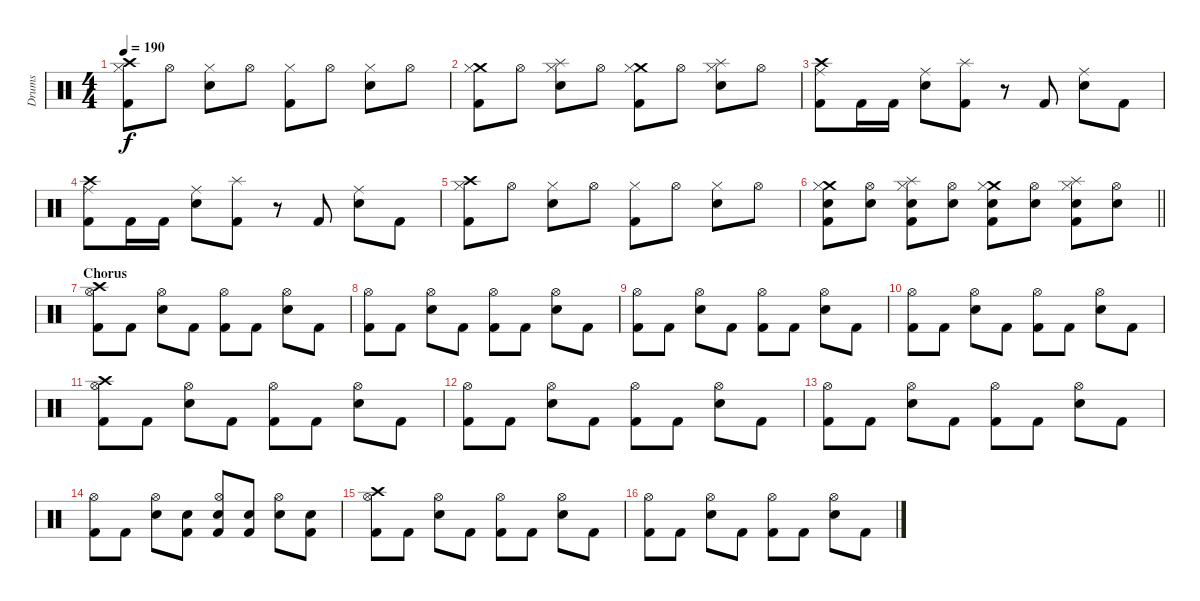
\track ("Drums" "Drums") {instrument percussion}
\staff {score}
\articulation defaults
\ts (4 4)
\tempo 190
\clef neutral
\ks c
("Crash high (hit)" "Hi-Hat (closed)" "Kick (hit) 2").8{dy f} "Hi-Hat (open)".8 ("Hi-Hat (closed)" "Snare (hit) 2").8 "Hi-Hat (open)".8 ("Hi-Hat (closed)" "Kick (hit) 2").8 "Hi-Hat (open)".8 ("Hi-Hat (closed)" "Snare (hit) 2").8 "Hi-Hat (open)".8 |
("Crash medium (hit)" "Hi-Hat (closed)" "Kick (hit) 2").8 "Hi-Hat (open)".8 ("Splash (hit)" "Hi-Hat (closed)" "Snare (hit) 2").8 "Hi-Hat (open)".8 ("Crash medium (hit)" "Hi-Hat (closed)" "Kick (hit) 2").8 "Hi-Hat (open)".8 ("Splash (hit)" "Hi-Hat (closed)" "Snare (hit) 2").8 "Hi-Hat (open)".8 |
("Crash high (hit)" "Ride (middle)" "Kick (hit) 2").8 "Kick (hit) 2".16 "Kick (hit) 2".16 ("Ride (middle)" "Snare (hit) 2").8 ("Splash (hit)" "Kick (hit) 2").8 r.8 "Kick (hit) 2".8 ("Ride (middle)" "Snare (hit) 2").8 "Kick (hit) 2".8 |
("Crash high (hit)" "Ride (middle)" "Kick (hit) 2").8 "Kick (hit) 2".16 "Kick (hit) 2".16 ("Ride (middle)" "Snare (hit) 2").8 ("Splash (hit)" "Kick (hit) 2").8 r.8 "Kick (hit) 2".8 ("Ride (middle)" "Snare (hit) 2").8 "Kick (hit) 2".8 |
("Crash high (hit)" "Hi-Hat (closed)" "Kick (hit) 2").8 "Hi-Hat (open)".8 ("Hi-Hat (closed)" "Snare (hit) 2").8 "Hi-Hat (open)".8 ("Hi-Hat (closed)" "Kick (hit) 2").8 "Hi-Hat (open)".8 ("Hi-Hat (closed)" "Snare (hit) 2").8 "Hi-Hat (open)".8 |
\barLineRight lightlight
("Crash medium (hit)" "Hi-Hat (closed)" "Snare (hit) 2" "Kick (hit) 2").8 ("Hi-Hat (open)" "Snare (hit) 2").8 ("Splash (hit)" "Hi-Hat (closed)" "Snare (hit) 2" "Kick (hit) 2").8 ("Hi-Hat (open)" "Snare (hit) 2").8 ("Crash medium (hit)" "Hi-Hat (closed)" "Snare (hit) 2" "Kick (hit) 2").8 ("Hi-Hat (open)" "Snare (hit) 2").8 ("Splash (hit)" "Hi-Hat (closed)" "Snare (hit) 2" "Kick (hit) 2").8 ("Hi-Hat (open)" "Snare (hit) 2").8 |
\section ("" "Chorus")
("Crash high (hit)" "Hi-Hat (open)" "Kick (hit) 2").8 "Kick (hit) 2".8 ("Hi-Hat (open)" "Snare (hit) 2").8 "Kick (hit) 2".8 ("Hi-Hat (open)" "Kick (hit) 2").8 "Kick (hit) 2".8 ("Hi-Hat (open)" "Snare (hit) 2").8 "Kick (hit) 2".8 |
("Hi-Hat (open)" "Kick (hit) 2").8 "Kick (hit) 2".8 ("Hi-Hat (open)" "Snare (hit) 2").8 "Kick (hit) 2".8 ("Hi-Hat (open)" "Kick (hit) 2").8 "Kick (hit) 2".8 ("Hi-Hat (open)" "Snare (hit) 2").8 "Kick (hit) 2".8 |
("Hi-Hat (open)" "Kick (hit) 2").8 "Kick (hit) 2".8 ("Hi-Hat (open)" "Snare (hit) 2").8 "Kick (hit) 2".8 ("Hi-Hat (open)" "Kick (hit) 2").8 "Kick (hit) 2".8 ("Hi-Hat (open)" "Snare (hit) 2").8 "Kick (hit) 2".8 |
("Hi-Hat (open)" "Kick (hit) 2").8 "Kick (hit) 2".8 ("Hi-Hat (open)" "Snare (hit) 2").8 "Kick (hit) 2".8 ("Hi-Hat (open)" "Kick (hit) 2").8 "Kick (hit) 2".8 ("Hi-Hat (open)" "Snare (hit) 2").8 "Kick (hit) 2".8 |
("Crash high (hit)" "Hi-Hat (open)" "Kick (hit) 2").8 "Kick (hit) 2".8 ("Hi-Hat (open)" "Snare (hit) 2").8 "Kick (hit) 2".8 ("Hi-Hat (open)" "Kick (hit) 2").8 "Kick (hit) 2".8 ("Hi-Hat (open)" "Snare (hit) 2").8 "Kick (hit) 2".8 |
("Hi-Hat (open)" "Kick (hit) 2").8 "Kick (hit) 2".8 ("Hi-Hat (open)" "Snare (hit) 2").8 "Kick (hit) 2".8 ("Hi-Hat (open)" "Kick (hit) 2").8 "Kick (hit) 2".8 ("Hi-Hat (open)" "Snare (hit) 2").8 "Kick (hit) 2".8 |
("Hi-Hat (open)" "Kick (hit) 2").8 "Kick (hit) 2".8 ("Hi-Hat (open)" "Snare (hit) 2").8 "Kick (hit) 2".8 ("Hi-Hat (open)" "Kick (hit) 2").8 "Kick (hit) 2".8 ("Hi-Hat (open)" "Snare (hit) 2").8 "Kick (hit) 2".8 |
("Hi-Hat (open)" "Kick (hit) 2").8 "Kick (hit) 2".8 ("Hi-Hat (open)" "Snare (hit) 2").8 ("Snare (hit) 2" "Kick (hit) 2").8 ("Hi-Hat (open)" "Snare (hit) 2" "Kick (hit) 2").8 ("Snare (hit) 2" "Kick (hit) 2").8 ("Hi-Hat (open)" "Snare (hit) 2").8 ("Snare (hit) 2" "Kick (hit) 2").8 |
("Crash high (hit)" "Hi-Hat (open)" "Kick (hit) 2").8 "Kick (hit) 2".8 ("Hi-Hat (open)" "Snare (hit) 2").8 "Kick (hit) 2".8 ("Hi-Hat (open)" "Kick (hit) 2").8 "Kick (hit) 2".8 ("Hi-Hat (open)" "Snare (hit) 2").8 "Kick (hit) 2".8 |
("Hi-Hat (open)" "Kick (hit) 2").8 "Kick (hit) 2".8 ("Hi-Hat (open)" "Snare (hit) 2").8 "Kick (hit) 2".8 ("Hi-Hat (open)" "Kick (hit) 2").8 "Kick (hit) 2".8 ("Hi-Hat (open)" "Snare (hit) 2").8 "Kick (hit) 2".8
